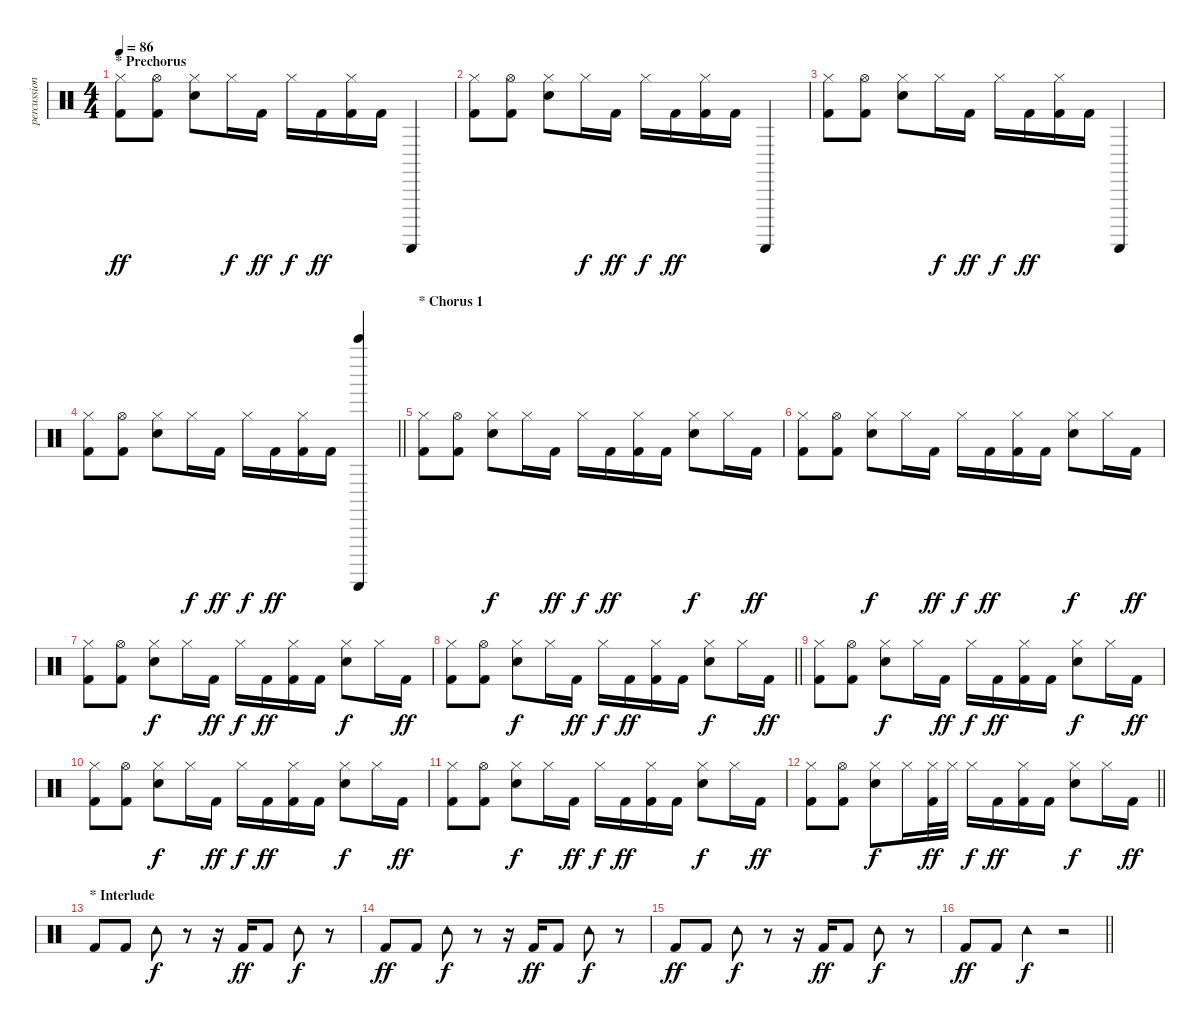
\track ("percussion" "percussion") {instrument percussion}
\staff {score}
\articulation defaults
\ts (4 4)
\section ("" "* Prechorus")
\tempo 86
\clef neutral
\ks c
("Hi-Hat (closed)" "Kick (hit) 2").8{dy ff} ("Hi-Hat (open)" "Kick (hit) 2").8 ("Electric Snare (hit)" "Hi-Hat (closed)").8 "Hi-Hat (closed)".16{dy f} "Kick (hit) 2".16{dy ff} "Hi-Hat (closed)".16{dy f} "Kick (hit) 2".16{dy ff} ("Hi-Hat (closed)" "Kick (hit) 2").16 "Kick (hit) 2".16 "Guiro (scrap-return)".4 |
("Hi-Hat (closed)" "Kick (hit) 2").8 ("Hi-Hat (open)" "Kick (hit) 2").8 ("Electric Snare (hit)" "Hi-Hat (closed)").8 "Hi-Hat (closed)".16{dy f} "Kick (hit) 2".16{dy ff} "Hi-Hat (closed)".16{dy f} "Kick (hit) 2".16{dy ff} ("Hi-Hat (closed)" "Kick (hit) 2").16 "Kick (hit) 2".16 "Guiro (scrap-return)".4 |
("Hi-Hat (closed)" "Kick (hit) 2").8 ("Hi-Hat (open)" "Kick (hit) 2").8 ("Electric Snare (hit)" "Hi-Hat (closed)").8 "Hi-Hat (closed)".16{dy f} "Kick (hit) 2".16{dy ff} "Hi-Hat (closed)".16{dy f} "Kick (hit) 2".16{dy ff} ("Hi-Hat (closed)" "Kick (hit) 2").16 "Kick (hit) 2".16 "Guiro (scrap-return)".4 |
\barLineRight lightlight
("Hi-Hat (closed)" "Kick (hit) 2").8 ("Hi-Hat (open)" "Kick (hit) 2").8 ("Electric Snare (hit)" "Hi-Hat (closed)").8 "Hi-Hat (closed)".16{dy f} "Kick (hit) 2".16{dy ff} "Hi-Hat (closed)".16{dy f} "Kick (hit) 2".16{dy ff} ("Hi-Hat (closed)" "Kick (hit) 2").16 "Kick (hit) 2".16 ("Guiro (scrap-return)" "Bell Tree (hit)").4 |
\section ("" "* Chorus 1")
("Hi-Hat (closed)" "Kick (hit) 2").8 ("Hi-Hat (open)" "Kick (hit) 2").8 ("Electric Snare (hit)" "Hi-Hat (closed)").8{dy f} "Hi-Hat (closed)".16 "Kick (hit) 2".16{dy ff} "Hi-Hat (closed)".16{dy f} "Kick (hit) 2".16{dy ff} ("Hi-Hat (closed)" "Kick (hit) 2").16 "Kick (hit) 2".16 ("Electric Snare (hit)" "Hi-Hat (closed)").8{dy f} "Hi-Hat (closed)".16 "Kick (hit) 2".16{dy ff} |
("Hi-Hat (closed)" "Kick (hit) 2").8 ("Hi-Hat (open)" "Kick (hit) 2").8 ("Electric Snare (hit)" "Hi-Hat (closed)").8{dy f} "Hi-Hat (closed)".16 "Kick (hit) 2".16{dy ff} "Hi-Hat (closed)".16{dy f} "Kick (hit) 2".16{dy ff} ("Hi-Hat (closed)" "Kick (hit) 2").16 "Kick (hit) 2".16 ("Electric Snare (hit)" "Hi-Hat (closed)").8{dy f} "Hi-Hat (closed)".16 "Kick (hit) 2".16{dy ff} |
("Hi-Hat (closed)" "Kick (hit) 2").8 ("Hi-Hat (open)" "Kick (hit) 2").8 ("Electric Snare (hit)" "Hi-Hat (closed)").8{dy f} "Hi-Hat (closed)".16 "Kick (hit) 2".16{dy ff} "Hi-Hat (closed)".16{dy f} "Kick (hit) 2".16{dy ff} ("Hi-Hat (closed)" "Kick (hit) 2").16 "Kick (hit) 2".16 ("Electric Snare (hit)" "Hi-Hat (closed)").8{dy f} "Hi-Hat (closed)".16 "Kick (hit) 2".16{dy ff} |
\barLineRight lightlight
("Hi-Hat (closed)" "Kick (hit) 2").8 ("Hi-Hat (open)" "Kick (hit) 2").8 ("Electric Snare (hit)" "Hi-Hat (closed)").8{dy f} "Hi-Hat (closed)".16 "Kick (hit) 2".16{dy ff} "Hi-Hat (closed)".16{dy f} "Kick (hit) 2".16{dy ff} ("Hi-Hat (closed)" "Kick (hit) 2").16 "Kick (hit) 2".16 ("Electric Snare (hit)" "Hi-Hat (closed)").8{dy f} "Hi-Hat (closed)".16 "Kick (hit) 2".16{dy ff} |
("Hi-Hat (closed)" "Kick (hit) 2").8 ("Hi-Hat (open)" "Kick (hit) 2").8 ("Electric Snare (hit)" "Hi-Hat (closed)").8{dy f} "Hi-Hat (closed)".16 "Kick (hit) 2".16{dy ff} "Hi-Hat (closed)".16{dy f} "Kick (hit) 2".16{dy ff} ("Hi-Hat (closed)" "Kick (hit) 2").16 "Kick (hit) 2".16 ("Electric Snare (hit)" "Hi-Hat (closed)").8{dy f} "Hi-Hat (closed)".16 "Kick (hit) 2".16{dy ff} |
("Hi-Hat (closed)" "Kick (hit) 2").8 ("Hi-Hat (open)" "Kick (hit) 2").8 ("Electric Snare (hit)" "Hi-Hat (closed)").8{dy f} "Hi-Hat (closed)".16 "Kick (hit) 2".16{dy ff} "Hi-Hat (closed)".16{dy f} "Kick (hit) 2".16{dy ff} ("Hi-Hat (closed)" "Kick (hit) 2").16 "Kick (hit) 2".16 ("Electric Snare (hit)" "Hi-Hat (closed)").8{dy f} "Hi-Hat (closed)".16 "Kick (hit) 2".16{dy ff} |
("Hi-Hat (closed)" "Kick (hit) 2").8 ("Hi-Hat (open)" "Kick (hit) 2").8 ("Electric Snare (hit)" "Hi-Hat (closed)").8{dy f} "Hi-Hat (closed)".16 "Kick (hit) 2".16{dy ff} "Hi-Hat (closed)".16{dy f} "Kick (hit) 2".16{dy ff} ("Hi-Hat (closed)" "Kick (hit) 2").16 "Kick (hit) 2".16 ("Electric Snare (hit)" "Hi-Hat (closed)").8{dy f} "Hi-Hat (closed)".16 "Kick (hit) 2".16{dy ff} |
\barLineRight lightlight
("Hi-Hat (closed)" "Kick (hit) 2").8 ("Hi-Hat (open)" "Kick (hit) 2").8 ("Electric Snare (hit)" "Hi-Hat (closed)").8{dy f} "Hi-Hat (closed)".16 ("Hi-Hat (closed)" "Kick (hit) 2").32{dy ff} "Hi-Hat (closed)".32 "Hi-Hat (closed)".16{dy f} "Kick (hit) 2".16{dy ff} ("Hi-Hat (closed)" "Kick (hit) 2").16 "Kick (hit) 2".16 ("Electric Snare (hit)" "Hi-Hat (closed)").8{dy f} "Hi-Hat (closed)".16 "Kick (hit) 2".16{dy ff} |
\section ("" "* Interlude")
"Kick (hit) 2".8 "Kick (hit) 2".8 "Tambourine (hit)".8{dy f} r.8 r.16 "Kick (hit) 2".16{dy ff} "Kick (hit) 2".8 "Tambourine (hit)".8{dy f} r.8 |
"Kick (hit) 2".8{dy ff} "Kick (hit) 2".8 "Tambourine (hit)".8{dy f} r.8 r.16 "Kick (hit) 2".16{dy ff} "Kick (hit) 2".8 "Tambourine (hit)".8{dy f} r.8 |
"Kick (hit) 2".8{dy ff} "Kick (hit) 2".8 "Tambourine (hit)".8{dy f} r.8 r.16 "Kick (hit) 2".16{dy ff} "Kick (hit) 2".8 "Tambourine (hit)".8{dy f} r.8 |
\barLineRight lightlight "Kick (hit) 2".8{dy ff} "Kick (hit) 2".8 "Tambourine (hit)".4{dy f}
r.2
